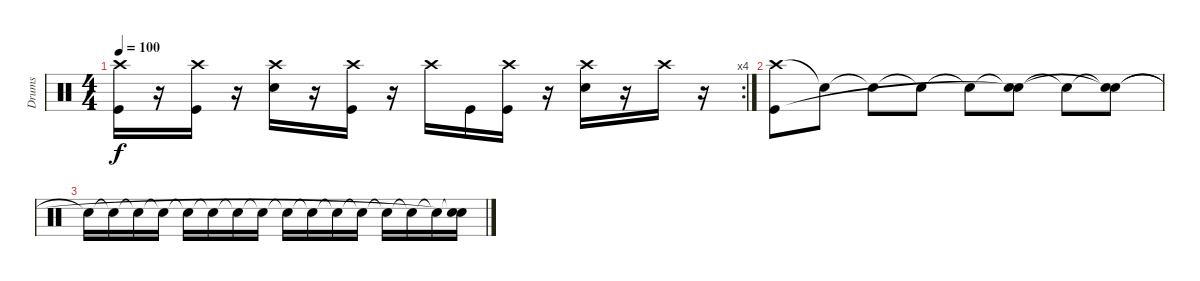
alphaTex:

\track ("Drums" "Drums") {instrument percussion}
\staff {score}
\articulation defaults
\rc 4
\ts (4 4)
\tempo 100
\clef neutral
\ks c
("Crash high (hit)" "Kick (hit)").16{dy f volume 13} r.16 ("Crash high (hit)" "Kick (hit)").16 r.16 ("Crash high (hit)" "Electric Snare (hit)").16 r.16 ("Crash high (hit)" "Kick (hit)").16 r.16 "Crash high (hit)".16 "Kick (hit)".16 ("Crash high (hit)" "Kick (hit)").16 r.16 ("Crash high (hit)" "Electric Snare (hit)").16 r.16 "Crash high (hit)".16 r.16 |
("Crash high (hit)" "Kick (hit)").8 "Snare (hit)"{t}.8 "Snare (hit)"{t}.8 "Snare (hit)"{t}.8 "Snare (hit)"{t}.8 ("Snare (hit)"{t} "Snare (hit)"{t}).8 "Snare (hit)"{t}.8 ("Snare (hit)"{t} "Snare (hit)"{t}).8 |
"Snare (hit)"{t}.16{volume 11} "Snare (hit)"{t}.16{volume 10} "Snare (hit)"{t}.16{volume 9} "Snare (hit)"{t}.16{volume 8} "Snare (hit)"{t}.16{volume 7} "Snare (hit)"{t}.16{volume 7} "Snare (hit)"{t}.16 "Snare (hit)"{t}.16 "Snare (hit)"{t}.16{volume 6} "Snare (hit)"{t}.16{volume 5} "Snare (hit)"{t}.16 "Snare (hit)"{t}.16 "Snare (hit)"{t}.16{volume 4} "Snare (hit)"{t}.16 "Snare (hit)"{t}.16{volume 0} ("Snare (hit)"{t} "Snare (hit)"{t}).16
